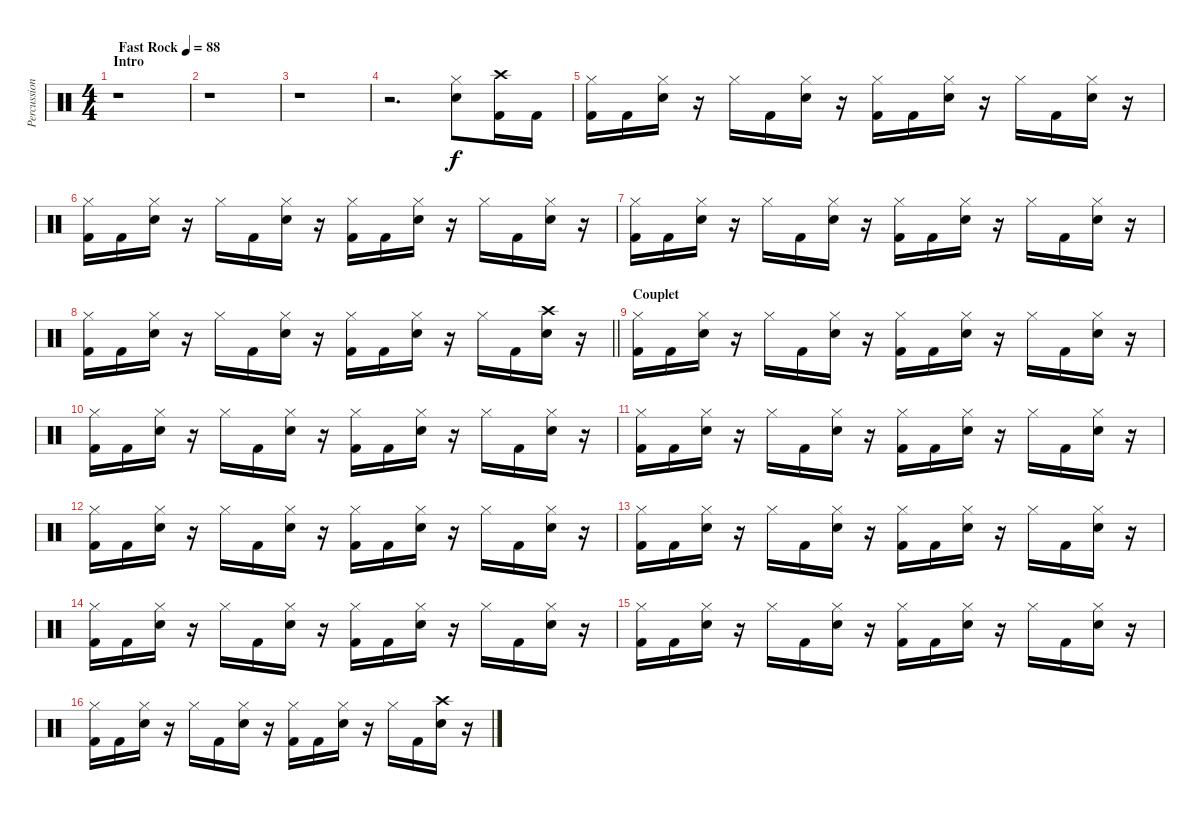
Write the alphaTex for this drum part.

\track ("Percussions" "Percussion") {instrument percussion}
\staff {score}
\articulation defaults
\ts (4 4)
\section ("" "Intro")
\tempo (88 "Fast Rock")
\clef neutral
\ks c
r.1{dy f} |
r.1 |
r.1 |
r.2{d} ("Hi-Hat (closed)" "Snare (hit) 2").8 ("Crash high (hit)" "Kick (hit) 2").16 "Kick (hit) 2".16 |
("Hi-Hat (closed)" "Kick (hit) 2").16 "Kick (hit) 2".16 ("Hi-Hat (closed)" "Snare (hit) 2").16 r.16 "Hi-Hat (closed)".16 "Kick (hit) 2".16 ("Hi-Hat (closed)" "Snare (hit) 2").16 r.16 ("Hi-Hat (closed)" "Kick (hit) 2").16 "Kick (hit) 2".16 ("Hi-Hat (closed)" "Snare (hit) 2").16 r.16 "Hi-Hat (closed)".16 "Kick (hit) 2".16 ("Hi-Hat (closed)" "Snare (hit) 2").16 r.16 |
("Hi-Hat (closed)" "Kick (hit) 2").16 "Kick (hit) 2".16 ("Hi-Hat (closed)" "Snare (hit) 2").16 r.16 "Hi-Hat (closed)".16 "Kick (hit) 2".16 ("Hi-Hat (closed)" "Snare (hit) 2").16 r.16 ("Hi-Hat (closed)" "Kick (hit) 2").16 "Kick (hit) 2".16 ("Hi-Hat (closed)" "Snare (hit) 2").16 r.16 "Hi-Hat (closed)".16 "Kick (hit) 2".16 ("Hi-Hat (closed)" "Snare (hit) 2").16 r.16 |
("Hi-Hat (closed)" "Kick (hit) 2").16 "Kick (hit) 2".16 ("Hi-Hat (closed)" "Snare (hit) 2").16 r.16 "Hi-Hat (closed)".16 "Kick (hit) 2".16 ("Hi-Hat (closed)" "Snare (hit) 2").16 r.16 ("Hi-Hat (closed)" "Kick (hit) 2").16 "Kick (hit) 2".16 ("Hi-Hat (closed)" "Snare (hit) 2").16 r.16 "Hi-Hat (closed)".16 "Kick (hit) 2".16 ("Hi-Hat (closed)" "Snare (hit) 2").16 r.16 |
\barLineRight lightlight
("Hi-Hat (closed)" "Kick (hit) 2").16 "Kick (hit) 2".16 ("Hi-Hat (closed)" "Snare (hit) 2").16 r.16 "Hi-Hat (closed)".16 "Kick (hit) 2".16 ("Hi-Hat (closed)" "Snare (hit) 2").16 r.16 ("Hi-Hat (closed)" "Kick (hit) 2").16 "Kick (hit) 2".16 ("Hi-Hat (closed)" "Snare (hit) 2").16 r.16 "Hi-Hat (closed)".16 "Kick (hit) 2".16 ("Crash high (hit)" "Snare (hit) 2").16 r.16 |
\section ("" "Couplet")
("Hi-Hat (closed)" "Kick (hit) 2").16 "Kick (hit) 2".16 ("Hi-Hat (closed)" "Snare (hit) 2").16 r.16 "Hi-Hat (closed)".16 "Kick (hit) 2".16 ("Hi-Hat (closed)" "Snare (hit) 2").16 r.16 ("Hi-Hat (closed)" "Kick (hit) 2").16 "Kick (hit) 2".16 ("Hi-Hat (closed)" "Snare (hit) 2").16 r.16 "Hi-Hat (closed)".16 "Kick (hit) 2".16 ("Hi-Hat (closed)" "Snare (hit) 2").16 r.16 |
("Hi-Hat (closed)" "Kick (hit) 2").16 "Kick (hit) 2".16 ("Hi-Hat (closed)" "Snare (hit) 2").16 r.16 "Hi-Hat (closed)".16 "Kick (hit) 2".16 ("Hi-Hat (closed)" "Snare (hit) 2").16 r.16 ("Hi-Hat (closed)" "Kick (hit) 2").16 "Kick (hit) 2".16 ("Hi-Hat (closed)" "Snare (hit) 2").16 r.16 "Hi-Hat (closed)".16 "Kick (hit) 2".16 ("Hi-Hat (closed)" "Snare (hit) 2").16 r.16 |
("Hi-Hat (closed)" "Kick (hit) 2").16 "Kick (hit) 2".16 ("Hi-Hat (closed)" "Snare (hit) 2").16 r.16 "Hi-Hat (closed)".16 "Kick (hit) 2".16 ("Hi-Hat (closed)" "Snare (hit) 2").16 r.16 ("Hi-Hat (closed)" "Kick (hit) 2").16 "Kick (hit) 2".16 ("Hi-Hat (closed)" "Snare (hit) 2").16 r.16 "Hi-Hat (closed)".16 "Kick (hit) 2".16 ("Hi-Hat (closed)" "Snare (hit) 2").16 r.16 |
("Hi-Hat (closed)" "Kick (hit) 2").16 "Kick (hit) 2".16 ("Hi-Hat (closed)" "Snare (hit) 2").16 r.16 "Hi-Hat (closed)".16 "Kick (hit) 2".16 ("Hi-Hat (closed)" "Snare (hit) 2").16 r.16 ("Hi-Hat (closed)" "Kick (hit) 2").16 "Kick (hit) 2".16 ("Hi-Hat (closed)" "Snare (hit) 2").16 r.16 "Hi-Hat (closed)".16 "Kick (hit) 2".16 ("Hi-Hat (closed)" "Snare (hit) 2").16 r.16 |
("Hi-Hat (closed)" "Kick (hit) 2").16 "Kick (hit) 2".16 ("Hi-Hat (closed)" "Snare (hit) 2").16 r.16 "Hi-Hat (closed)".16 "Kick (hit) 2".16 ("Hi-Hat (closed)" "Snare (hit) 2").16 r.16 ("Hi-Hat (closed)" "Kick (hit) 2").16 "Kick (hit) 2".16 ("Hi-Hat (closed)" "Snare (hit) 2").16 r.16 "Hi-Hat (closed)".16 "Kick (hit) 2".16 ("Hi-Hat (closed)" "Snare (hit) 2").16 r.16 |
("Hi-Hat (closed)" "Kick (hit) 2").16 "Kick (hit) 2".16 ("Hi-Hat (closed)" "Snare (hit) 2").16 r.16 "Hi-Hat (closed)".16 "Kick (hit) 2".16 ("Hi-Hat (closed)" "Snare (hit) 2").16 r.16 ("Hi-Hat (closed)" "Kick (hit) 2").16 "Kick (hit) 2".16 ("Hi-Hat (closed)" "Snare (hit) 2").16 r.16 "Hi-Hat (closed)".16 "Kick (hit) 2".16 ("Hi-Hat (closed)" "Snare (hit) 2").16 r.16 |
("Hi-Hat (closed)" "Kick (hit) 2").16 "Kick (hit) 2".16 ("Hi-Hat (closed)" "Snare (hit) 2").16 r.16 "Hi-Hat (closed)".16 "Kick (hit) 2".16 ("Hi-Hat (closed)" "Snare (hit) 2").16 r.16 ("Hi-Hat (closed)" "Kick (hit) 2").16 "Kick (hit) 2".16 ("Hi-Hat (closed)" "Snare (hit) 2").16 r.16 "Hi-Hat (closed)".16 "Kick (hit) 2".16 ("Hi-Hat (closed)" "Snare (hit) 2").16 r.16 |
("Hi-Hat (closed)" "Kick (hit) 2").16 "Kick (hit) 2".16 ("Hi-Hat (closed)" "Snare (hit) 2").16 r.16 "Hi-Hat (closed)".16 "Kick (hit) 2".16 ("Hi-Hat (closed)" "Snare (hit) 2").16 r.16 ("Hi-Hat (closed)" "Kick (hit) 2").16 "Kick (hit) 2".16 ("Hi-Hat (closed)" "Snare (hit) 2").16 r.16 "Hi-Hat (closed)".16 "Kick (hit) 2".16 ("Crash high (hit)" "Snare (hit) 2").16 r.16
